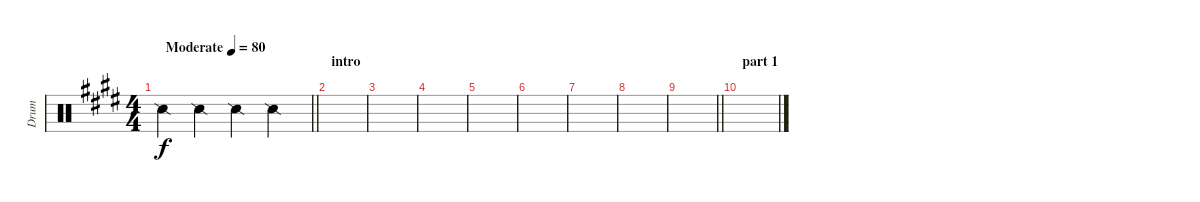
\track ("Drum" "Drum") {instrument percussion}
\staff {score}
\articulation defaults
\ts (4 4)
\tempo (80 "Moderate")
\clef neutral
\barLineRight lightlight
\ks e "Snare (side stick) 2".4{dy f} "Snare (side stick) 2".4 "Snare (side stick) 2".4 "Snare (side stick) 2".4
|
\section ("" "intro")
|
|
|
|
|
|
|
\barLineRight lightlight
|
\section ("" "part 1")
